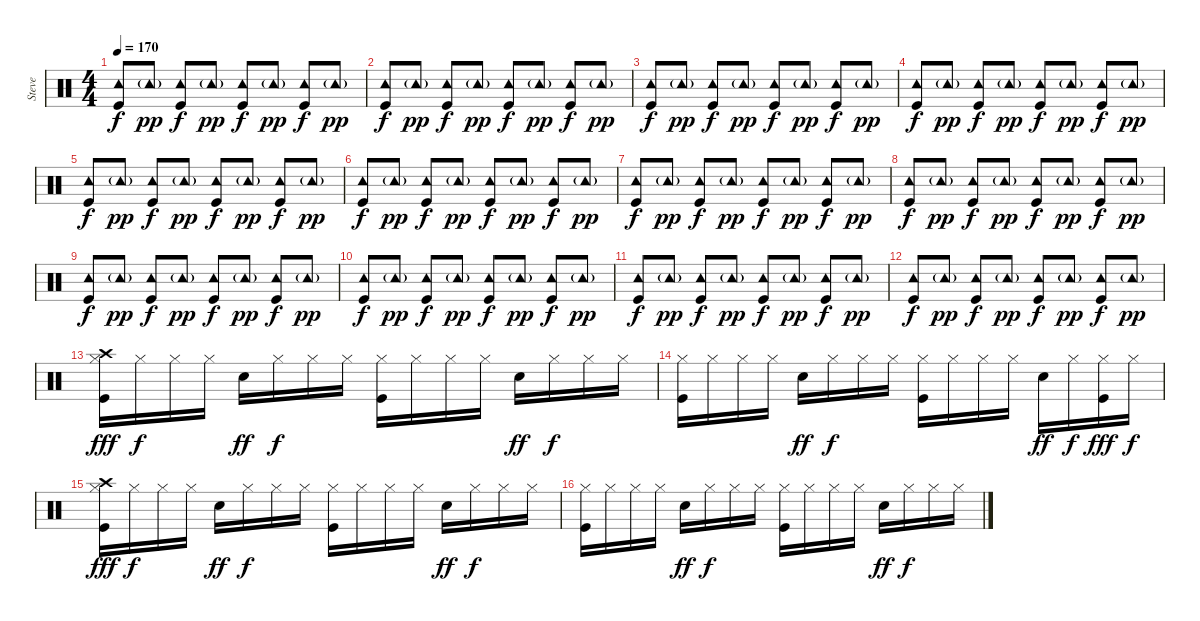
\track ("Steve" "Steve") {instrument percussion}
\staff {score}
\articulation defaults
\ts (4 4)
\tempo 170
\clef neutral
\ks c
("Tambourine (hit)" "Kick (hit)").8{dy f} "Tambourine (hit)"{g}.8{dy pp} ("Tambourine (hit)" "Kick (hit)").8{dy f} "Tambourine (hit)"{g}.8{dy pp} ("Tambourine (hit)" "Kick (hit)").8{dy f} "Tambourine (hit)"{g}.8{dy pp} ("Tambourine (hit)" "Kick (hit)").8{dy f} "Tambourine (hit)"{g}.8{dy pp} |
("Tambourine (hit)" "Kick (hit)").8{dy f} "Tambourine (hit)"{g}.8{dy pp} ("Tambourine (hit)" "Kick (hit)").8{dy f} "Tambourine (hit)"{g}.8{dy pp} ("Tambourine (hit)" "Kick (hit)").8{dy f} "Tambourine (hit)"{g}.8{dy pp} ("Tambourine (hit)" "Kick (hit)").8{dy f} "Tambourine (hit)"{g}.8{dy pp} |
("Tambourine (hit)" "Kick (hit)").8{dy f} "Tambourine (hit)"{g}.8{dy pp} ("Tambourine (hit)" "Kick (hit)").8{dy f} "Tambourine (hit)"{g}.8{dy pp} ("Tambourine (hit)" "Kick (hit)").8{dy f} "Tambourine (hit)"{g}.8{dy pp} ("Tambourine (hit)" "Kick (hit)").8{dy f} "Tambourine (hit)"{g}.8{dy pp} |
("Tambourine (hit)" "Kick (hit)").8{dy f} "Tambourine (hit)"{g}.8{dy pp} ("Tambourine (hit)" "Kick (hit)").8{dy f} "Tambourine (hit)"{g}.8{dy pp} ("Tambourine (hit)" "Kick (hit)").8{dy f} "Tambourine (hit)"{g}.8{dy pp} ("Tambourine (hit)" "Kick (hit)").8{dy f} "Tambourine (hit)"{g}.8{dy pp} |
("Tambourine (hit)" "Kick (hit)").8{dy f} "Tambourine (hit)"{g}.8{dy pp} ("Tambourine (hit)" "Kick (hit)").8{dy f} "Tambourine (hit)"{g}.8{dy pp} ("Tambourine (hit)" "Kick (hit)").8{dy f} "Tambourine (hit)"{g}.8{dy pp} ("Tambourine (hit)" "Kick (hit)").8{dy f} "Tambourine (hit)"{g}.8{dy pp} |
("Tambourine (hit)" "Kick (hit)").8{dy f} "Tambourine (hit)"{g}.8{dy pp} ("Tambourine (hit)" "Kick (hit)").8{dy f} "Tambourine (hit)"{g}.8{dy pp} ("Tambourine (hit)" "Kick (hit)").8{dy f} "Tambourine (hit)"{g}.8{dy pp} ("Tambourine (hit)" "Kick (hit)").8{dy f} "Tambourine (hit)"{g}.8{dy pp} |
("Tambourine (hit)" "Kick (hit)").8{dy f} "Tambourine (hit)"{g}.8{dy pp} ("Tambourine (hit)" "Kick (hit)").8{dy f} "Tambourine (hit)"{g}.8{dy pp} ("Tambourine (hit)" "Kick (hit)").8{dy f} "Tambourine (hit)"{g}.8{dy pp} ("Tambourine (hit)" "Kick (hit)").8{dy f} "Tambourine (hit)"{g}.8{dy pp} |
("Tambourine (hit)" "Kick (hit)").8{dy f} "Tambourine (hit)"{g}.8{dy pp} ("Tambourine (hit)" "Kick (hit)").8{dy f} "Tambourine (hit)"{g}.8{dy pp} ("Tambourine (hit)" "Kick (hit)").8{dy f} "Tambourine (hit)"{g}.8{dy pp} ("Tambourine (hit)" "Kick (hit)").8{dy f} "Tambourine (hit)"{g}.8{dy pp} |
("Tambourine (hit)" "Kick (hit)").8{dy f} "Tambourine (hit)"{g}.8{dy pp} ("Tambourine (hit)" "Kick (hit)").8{dy f} "Tambourine (hit)"{g}.8{dy pp} ("Tambourine (hit)" "Kick (hit)").8{dy f} "Tambourine (hit)"{g}.8{dy pp} ("Tambourine (hit)" "Kick (hit)").8{dy f} "Tambourine (hit)"{g}.8{dy pp} |
("Tambourine (hit)" "Kick (hit)").8{dy f} "Tambourine (hit)"{g}.8{dy pp} ("Tambourine (hit)" "Kick (hit)").8{dy f} "Tambourine (hit)"{g}.8{dy pp} ("Tambourine (hit)" "Kick (hit)").8{dy f} "Tambourine (hit)"{g}.8{dy pp} ("Tambourine (hit)" "Kick (hit)").8{dy f} "Tambourine (hit)"{g}.8{dy pp} |
("Tambourine (hit)" "Kick (hit)").8{dy f} "Tambourine (hit)"{g}.8{dy pp} ("Tambourine (hit)" "Kick (hit)").8{dy f} "Tambourine (hit)"{g}.8{dy pp} ("Tambourine (hit)" "Kick (hit)").8{dy f} "Tambourine (hit)"{g}.8{dy pp} ("Tambourine (hit)" "Kick (hit)").8{dy f} "Tambourine (hit)"{g}.8{dy pp} |
("Tambourine (hit)" "Kick (hit)").8{dy f} "Tambourine (hit)"{g}.8{dy pp} ("Tambourine (hit)" "Kick (hit)").8{dy f} "Tambourine (hit)"{g}.8{dy pp} ("Tambourine (hit)" "Kick (hit)").8{dy f} "Tambourine (hit)"{g}.8{dy pp} ("Tambourine (hit)" "Kick (hit)").8{dy f} "Tambourine (hit)"{g}.8{dy pp} |
("Hi-Hat (closed)" "Crash high (hit)" "Kick (hit)").16{dy fff} "Hi-Hat (closed)".16{dy f} "Hi-Hat (closed)".16 "Hi-Hat (closed)".16 "Electric Snare (hit)".16{dy ff} "Hi-Hat (closed)".16{dy f} "Hi-Hat (closed)".16 "Hi-Hat (closed)".16 ("Hi-Hat (closed)" "Kick (hit)").16 "Hi-Hat (closed)".16 "Hi-Hat (closed)".16 "Hi-Hat (closed)".16 "Electric Snare (hit)".16{dy ff} "Hi-Hat (closed)".16{dy f} "Hi-Hat (closed)".16 "Hi-Hat (closed)".16 |
("Hi-Hat (closed)" "Kick (hit)").16 "Hi-Hat (closed)".16 "Hi-Hat (closed)".16 "Hi-Hat (closed)".16 "Electric Snare (hit)".16{dy ff} "Hi-Hat (closed)".16{dy f} "Hi-Hat (closed)".16 "Hi-Hat (closed)".16 ("Hi-Hat (closed)" "Kick (hit)").16 "Hi-Hat (closed)".16 "Hi-Hat (closed)".16 "Hi-Hat (closed)".16 "Electric Snare (hit)".16{dy ff} "Hi-Hat (closed)".16{dy f} ("Hi-Hat (closed)" "Kick (hit)").16{dy fff} "Hi-Hat (closed)".16{dy f} |
("Hi-Hat (closed)" "Crash high (hit)" "Kick (hit)").16{dy fff} "Hi-Hat (closed)".16{dy f} "Hi-Hat (closed)".16 "Hi-Hat (closed)".16 "Electric Snare (hit)".16{dy ff} "Hi-Hat (closed)".16{dy f} "Hi-Hat (closed)".16 "Hi-Hat (closed)".16 ("Hi-Hat (closed)" "Kick (hit)").16 "Hi-Hat (closed)".16 "Hi-Hat (closed)".16 "Hi-Hat (closed)".16 "Electric Snare (hit)".16{dy ff} "Hi-Hat (closed)".16{dy f} "Hi-Hat (closed)".16 "Hi-Hat (closed)".16 |
("Hi-Hat (closed)" "Kick (hit)").16 "Hi-Hat (closed)".16 "Hi-Hat (closed)".16 "Hi-Hat (closed)".16 "Electric Snare (hit)".16{dy ff} "Hi-Hat (closed)".16{dy f} "Hi-Hat (closed)".16 "Hi-Hat (closed)".16 ("Hi-Hat (closed)" "Kick (hit)").16 "Hi-Hat (closed)".16 "Hi-Hat (closed)".16 "Hi-Hat (closed)".16 "Electric Snare (hit)".16{dy ff} "Hi-Hat (closed)".16{dy f} "Hi-Hat (closed)".16 "Hi-Hat (closed)".16
